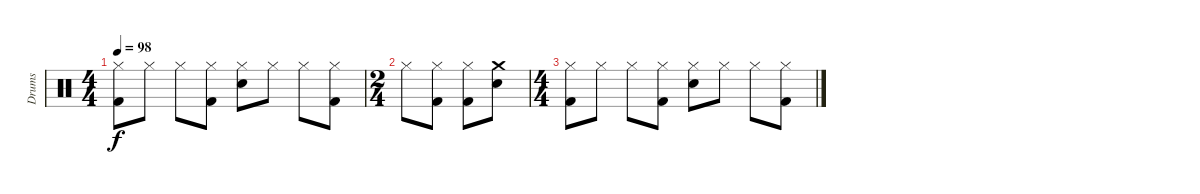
\track ("Drums" "Drums") {instrument percussion}
\staff {score}
\articulation defaults
\ts (4 4)
\tempo 98
\clef neutral
\ks c
("Kick (hit) 2" "Hi-Hat (closed)").8{dy f} "Hi-Hat (closed)".8 "Hi-Hat (closed)".8 ("Kick (hit) 2" "Hi-Hat (closed)").8 ("Hi-Hat (closed)" "Snare (hit) 2").8 "Hi-Hat (closed)".8 "Hi-Hat (closed)".8 ("Kick (hit) 2" "Hi-Hat (closed)").8 |
\ts (2 4)
"Hi-Hat (closed)".8 ("Hi-Hat (closed)" "Kick (hit) 2").8 ("Hi-Hat (closed)" "Kick (hit) 2").8 ("Crash medium (hit)" "Snare (hit) 2").8 |
\ts (4 4)
("Kick (hit) 2" "Hi-Hat (closed)").8 "Hi-Hat (closed)".8 "Hi-Hat (closed)".8 ("Kick (hit) 2" "Hi-Hat (closed)").8 ("Hi-Hat (closed)" "Snare (hit) 2").8 "Hi-Hat (closed)".8 "Hi-Hat (closed)".8 ("Kick (hit) 2" "Hi-Hat (closed)").8
